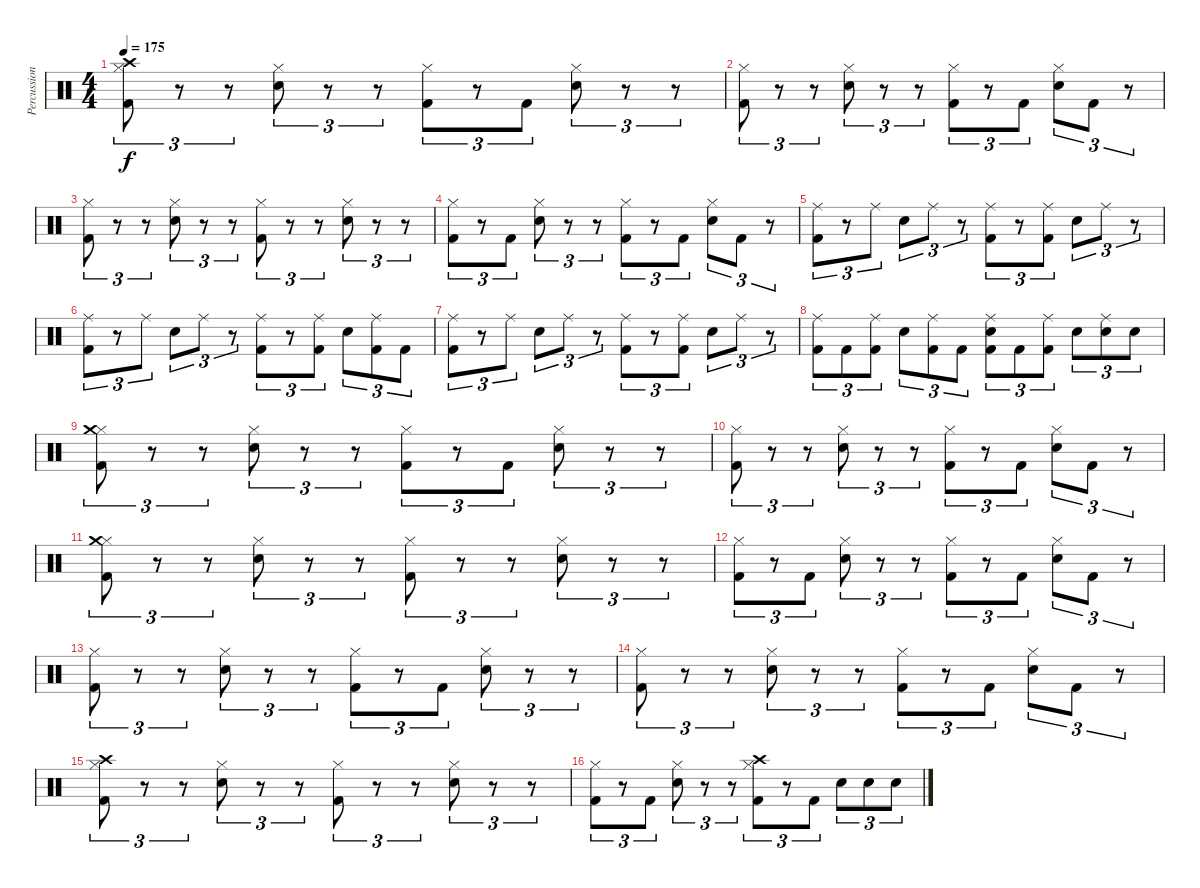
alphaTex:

\track ("Percussion" "Percussion") {instrument percussion}
\staff {score}
\articulation defaults
\ts (4 4)
\tempo 175
\clef neutral
\ks c
("Hi-Hat (closed)" "Crash high (hit)" "Kick (hit) 2").8{tu (3 2) dy f} r.8{tu (3 2)} r.8{tu (3 2)} ("Hi-Hat (closed)" "Electric Snare (hit)").8{tu (3 2)} r.8{tu (3 2)} r.8{tu (3 2)} ("Hi-Hat (closed)" "Kick (hit) 2").8{tu (3 2)} r.8{tu (3 2)} "Kick (hit) 2".8{tu (3 2)} ("Hi-Hat (closed)" "Electric Snare (hit)").8{tu (3 2)} r.8{tu (3 2)} r.8{tu (3 2)} |
("Hi-Hat (closed)" "Kick (hit) 2").8{tu (3 2)} r.8{tu (3 2)} r.8{tu (3 2)} ("Hi-Hat (closed)" "Electric Snare (hit)").8{tu (3 2)} r.8{tu (3 2)} r.8{tu (3 2)} ("Hi-Hat (closed)" "Kick (hit) 2").8{tu (3 2)} r.8{tu (3 2)} "Kick (hit) 2".8{tu (3 2)} ("Hi-Hat (closed)" "Electric Snare (hit)").8{tu (3 2)} "Kick (hit) 2".8{tu (3 2)} r.8{tu (3 2)} |
("Hi-Hat (closed)" "Kick (hit) 2").8{tu (3 2)} r.8{tu (3 2)} r.8{tu (3 2)} ("Hi-Hat (closed)" "Electric Snare (hit)").8{tu (3 2)} r.8{tu (3 2)} r.8{tu (3 2)} ("Hi-Hat (closed)" "Kick (hit) 2").8{tu (3 2)} r.8{tu (3 2)} r.8{tu (3 2)} ("Hi-Hat (closed)" "Electric Snare (hit)").8{tu (3 2)} r.8{tu (3 2)} r.8{tu (3 2)} |
("Hi-Hat (closed)" "Kick (hit) 2").8{tu (3 2)} r.8{tu (3 2)} "Kick (hit) 2".8{tu (3 2)} ("Hi-Hat (closed)" "Electric Snare (hit)").8{tu (3 2)} r.8{tu (3 2)} r.8{tu (3 2)} ("Hi-Hat (closed)" "Kick (hit) 2").8{tu (3 2)} r.8{tu (3 2)} "Kick (hit) 2".8{tu (3 2)} ("Hi-Hat (closed)" "Electric Snare (hit)").8{tu (3 2)} "Kick (hit) 2".8{tu (3 2)} r.8{tu (3 2)} |
("Kick (hit) 2" "Ride (middle)").8{tu (3 2)} r.8{tu (3 2)} "Ride (middle)".8{tu (3 2)} "Electric Snare (hit)".8{tu (3 2)} "Ride (middle)".8{tu (3 2)} r.8{tu (3 2)} ("Kick (hit) 2" "Ride (middle)").8{tu (3 2)} r.8{tu (3 2)} ("Kick (hit) 2" "Ride (middle)").8{tu (3 2)} "Electric Snare (hit)".8{tu (3 2)} "Ride (middle)".8{tu (3 2)} r.8{tu (3 2)} |
("Kick (hit) 2" "Ride (middle)").8{tu (3 2)} r.8{tu (3 2)} "Ride (middle)".8{tu (3 2)} "Electric Snare (hit)".8{tu (3 2)} "Ride (middle)".8{tu (3 2)} r.8{tu (3 2)} ("Kick (hit) 2" "Ride (middle)").8{tu (3 2)} r.8{tu (3 2)} ("Kick (hit) 2" "Ride (middle)").8{tu (3 2)} "Electric Snare (hit)".8{tu (3 2)} ("Kick (hit) 2" "Ride (middle)").8{tu (3 2)} "Kick (hit) 2".8{tu (3 2)} |
("Kick (hit) 2" "Ride (middle)").8{tu (3 2)} r.8{tu (3 2)} "Ride (middle)".8{tu (3 2)} "Electric Snare (hit)".8{tu (3 2)} "Ride (middle)".8{tu (3 2)} r.8{tu (3 2)} ("Kick (hit) 2" "Ride (middle)").8{tu (3 2)} r.8{tu (3 2)} ("Kick (hit) 2" "Ride (middle)").8{tu (3 2)} "Electric Snare (hit)".8{tu (3 2)} "Ride (middle)".8{tu (3 2)} r.8{tu (3 2)} |
("Kick (hit) 2" "Ride (middle)").8{tu (3 2)} "Kick (hit) 2".8{tu (3 2)} ("Kick (hit) 2" "Ride (middle)").8{tu (3 2)} "Electric Snare (hit)".8{tu (3 2)} ("Kick (hit) 2" "Ride (middle)").8{tu (3 2)} "Kick (hit) 2".8{tu (3 2)} ("Kick (hit) 2" "Electric Snare (hit)" "Ride (middle)").8{tu (3 2)} "Kick (hit) 2".8{tu (3 2)} ("Kick (hit) 2" "Ride (middle)").8{tu (3 2)} "Electric Snare (hit)".8{tu (3 2)} ("Electric Snare (hit)" "Ride (middle)").8{tu (3 2)} "Electric Snare (hit)".8{tu (3 2)} |
("Hi-Hat (closed)" "Crash medium (hit)" "Kick (hit) 2").8{tu (3 2)} r.8{tu (3 2)} r.8{tu (3 2)} ("Hi-Hat (closed)" "Electric Snare (hit)").8{tu (3 2)} r.8{tu (3 2)} r.8{tu (3 2)} ("Hi-Hat (closed)" "Kick (hit) 2").8{tu (3 2)} r.8{tu (3 2)} "Kick (hit) 2".8{tu (3 2)} ("Hi-Hat (closed)" "Electric Snare (hit)").8{tu (3 2)} r.8{tu (3 2)} r.8{tu (3 2)} |
("Hi-Hat (closed)" "Kick (hit) 2").8{tu (3 2)} r.8{tu (3 2)} r.8{tu (3 2)} ("Hi-Hat (closed)" "Electric Snare (hit)").8{tu (3 2)} r.8{tu (3 2)} r.8{tu (3 2)} ("Hi-Hat (closed)" "Kick (hit) 2").8{tu (3 2)} r.8{tu (3 2)} "Kick (hit) 2".8{tu (3 2)} ("Hi-Hat (closed)" "Electric Snare (hit)").8{tu (3 2)} "Kick (hit) 2".8{tu (3 2)} r.8{tu (3 2)} |
("Hi-Hat (closed)" "Crash medium (hit)" "Kick (hit) 2").8{tu (3 2)} r.8{tu (3 2)} r.8{tu (3 2)} ("Hi-Hat (closed)" "Electric Snare (hit)").8{tu (3 2)} r.8{tu (3 2)} r.8{tu (3 2)} ("Hi-Hat (closed)" "Kick (hit) 2").8{tu (3 2)} r.8{tu (3 2)} r.8{tu (3 2)} ("Hi-Hat (closed)" "Electric Snare (hit)").8{tu (3 2)} r.8{tu (3 2)} r.8{tu (3 2)} |
("Hi-Hat (closed)" "Kick (hit) 2").8{tu (3 2)} r.8{tu (3 2)} "Kick (hit) 2".8{tu (3 2)} ("Hi-Hat (closed)" "Electric Snare (hit)").8{tu (3 2)} r.8{tu (3 2)} r.8{tu (3 2)} ("Hi-Hat (closed)" "Kick (hit) 2").8{tu (3 2)} r.8{tu (3 2)} "Kick (hit) 2".8{tu (3 2)} ("Hi-Hat (closed)" "Electric Snare (hit)").8{tu (3 2)} "Kick (hit) 2".8{tu (3 2)} r.8{tu (3 2)} |
("Hi-Hat (closed)" "Kick (hit) 2").8{tu (3 2)} r.8{tu (3 2)} r.8{tu (3 2)} ("Hi-Hat (closed)" "Electric Snare (hit)").8{tu (3 2)} r.8{tu (3 2)} r.8{tu (3 2)} ("Hi-Hat (closed)" "Kick (hit) 2").8{tu (3 2)} r.8{tu (3 2)} "Kick (hit) 2".8{tu (3 2)} ("Hi-Hat (closed)" "Electric Snare (hit)").8{tu (3 2)} r.8{tu (3 2)} r.8{tu (3 2)} |
("Hi-Hat (closed)" "Kick (hit) 2").8{tu (3 2)} r.8{tu (3 2)} r.8{tu (3 2)} ("Hi-Hat (closed)" "Electric Snare (hit)").8{tu (3 2)} r.8{tu (3 2)} r.8{tu (3 2)} ("Hi-Hat (closed)" "Kick (hit) 2").8{tu (3 2)} r.8{tu (3 2)} "Kick (hit) 2".8{tu (3 2)} ("Hi-Hat (closed)" "Electric Snare (hit)").8{tu (3 2)} "Kick (hit) 2".8{tu (3 2)} r.8{tu (3 2)} |
("Hi-Hat (closed)" "Crash high (hit)" "Kick (hit) 2").8{tu (3 2)} r.8{tu (3 2)} r.8{tu (3 2)} ("Hi-Hat (closed)" "Electric Snare (hit)").8{tu (3 2)} r.8{tu (3 2)} r.8{tu (3 2)} ("Hi-Hat (closed)" "Kick (hit) 2").8{tu (3 2)} r.8{tu (3 2)} r.8{tu (3 2)} ("Hi-Hat (closed)" "Electric Snare (hit)").8{tu (3 2)} r.8{tu (3 2)} r.8{tu (3 2)} |
("Hi-Hat (closed)" "Kick (hit) 2").8{tu (3 2)} r.8{tu (3 2)} "Kick (hit) 2".8{tu (3 2)} ("Hi-Hat (closed)" "Electric Snare (hit)").8{tu (3 2)} r.8{tu (3 2)} r.8{tu (3 2)} ("Hi-Hat (closed)" "Crash high (hit)" "Kick (hit) 2").8{tu (3 2)} r.8{tu (3 2)} "Kick (hit) 2".8{tu (3 2)} "Electric Snare (hit)".8{tu (3 2)} "Electric Snare (hit)".8{tu (3 2)} "Electric Snare (hit)".8{tu (3 2)}
